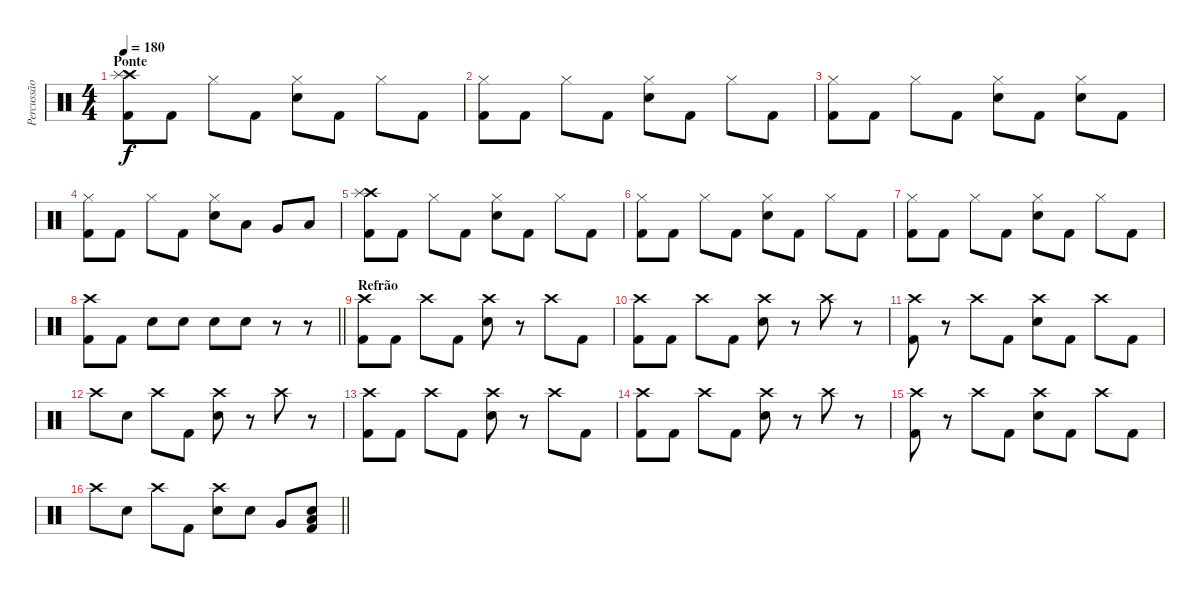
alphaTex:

\track ("Percussão" "Percussão") {instrument percussion}
\staff {score}
\articulation defaults
\ts (4 4)
\section ("" "Ponte")
\tempo 180
\clef neutral
\ks c
("Crash high (hit)" "Splash (hit)" "Kick (hit) 2").8{dy f} "Kick (hit) 2".8 "Hi-Hat (closed)".8 "Kick (hit) 2".8 ("Hi-Hat (closed)" "Electric Snare (hit)").8 "Kick (hit) 2".8 "Hi-Hat (closed)".8 "Kick (hit) 2".8 |
("Hi-Hat (closed)" "Kick (hit) 2").8 "Kick (hit) 2".8 "Hi-Hat (closed)".8 "Kick (hit) 2".8 ("Hi-Hat (closed)" "Electric Snare (hit)").8 "Kick (hit) 2".8 "Hi-Hat (closed)".8 "Kick (hit) 2".8 |
("Hi-Hat (closed)" "Kick (hit) 2").8 "Kick (hit) 2".8 "Hi-Hat (closed)".8 "Kick (hit) 2".8 ("Hi-Hat (closed)" "Electric Snare (hit)").8 "Kick (hit) 2".8 ("Hi-Hat (closed)" "Electric Snare (hit)").8 "Kick (hit) 2".8 |
("Hi-Hat (closed)" "Kick (hit) 2").8 "Kick (hit) 2".8 "Hi-Hat (closed)".8 "Kick (hit) 2".8 ("Hi-Hat (closed)" "Electric Snare (hit)").8 "Low Tom (hit)".8 "Very Low Tom (hit)".8 "Low Floor Tom (hit)".8 |
("Crash high (hit)" "Splash (hit)" "Kick (hit) 2").8 "Kick (hit) 2".8 "Hi-Hat (closed)".8 "Kick (hit) 2".8 ("Hi-Hat (closed)" "Electric Snare (hit)").8 "Kick (hit) 2".8 "Hi-Hat (closed)".8 "Kick (hit) 2".8 |
("Hi-Hat (closed)" "Kick (hit) 2").8 "Kick (hit) 2".8 "Hi-Hat (closed)".8 "Kick (hit) 2".8 ("Hi-Hat (closed)" "Electric Snare (hit)").8 "Kick (hit) 2".8 "Hi-Hat (closed)".8 "Kick (hit) 2".8 |
("Hi-Hat (closed)" "Kick (hit) 2").8 "Kick (hit) 2".8 "Hi-Hat (closed)".8 "Kick (hit) 2".8 ("Hi-Hat (closed)" "Electric Snare (hit)").8 "Kick (hit) 2".8 "Hi-Hat (closed)".8 "Kick (hit) 2".8 |
\barLineRight lightlight
("Crash high (hit)" "Kick (hit) 2").8 "Kick (hit) 2".8 "Electric Snare (hit)".8 "Electric Snare (hit)".8 "Electric Snare (hit)".8 "Electric Snare (hit)".8 r.8 r.8 |
\section ("" "Refrão")
("Crash high (hit)" "Kick (hit) 2").8 "Kick (hit) 2".8 "Crash high (hit)".8 "Kick (hit) 2".8 ("Crash high (hit)" "Electric Snare (hit)").8 r.8 "Crash high (hit)".8 "Kick (hit) 2".8 |
("Crash high (hit)" "Kick (hit) 2").8 "Kick (hit) 2".8 "Crash high (hit)".8 "Kick (hit) 2".8 ("Crash high (hit)" "Electric Snare (hit)").8 r.8 "Crash high (hit)".8 r.8 |
("Crash high (hit)" "Kick (hit) 2").8 r.8 "Crash high (hit)".8 "Kick (hit) 2".8 ("Crash high (hit)" "Electric Snare (hit)").8 "Kick (hit) 2".8 "Crash high (hit)".8 "Kick (hit) 2".8 |
"Crash high (hit)".8 "Electric Snare (hit)".8 "Crash high (hit)".8 "Kick (hit) 2".8 ("Crash high (hit)" "Electric Snare (hit)").8 r.8 "Crash high (hit)".8 r.8 |
("Crash high (hit)" "Kick (hit) 2").8 "Kick (hit) 2".8 "Crash high (hit)".8 "Kick (hit) 2".8 ("Crash high (hit)" "Electric Snare (hit)").8 r.8 "Crash high (hit)".8 "Kick (hit) 2".8 |
("Crash high (hit)" "Kick (hit) 2").8 "Kick (hit) 2".8 "Crash high (hit)".8 "Kick (hit) 2".8 ("Crash high (hit)" "Electric Snare (hit)").8 r.8 "Crash high (hit)".8 r.8 |
("Crash high (hit)" "Kick (hit) 2").8 r.8 "Crash high (hit)".8 "Kick (hit) 2".8 ("Crash high (hit)" "Electric Snare (hit)").8 "Kick (hit) 2".8 "Crash high (hit)".8 "Kick (hit) 2".8 |
\barLineRight lightlight "Crash high (hit)".8 "Electric Snare (hit)".8 "Crash high (hit)".8 "Kick (hit) 2".8
("Crash high (hit)" "Electric Snare (hit)").8 "Electric Snare (hit)".8 "Very Low Tom (hit)".8 ("Low Tom (hit)" "Electric Snare (hit)" "Kick (hit) 2").8
